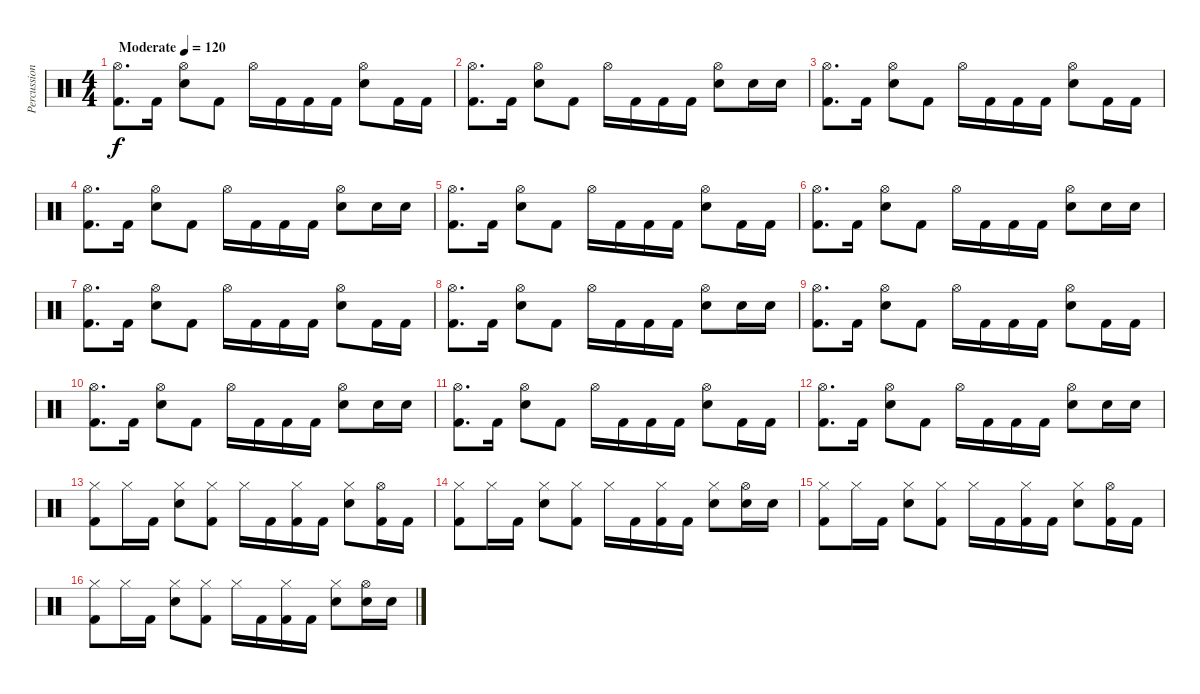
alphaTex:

\track ("Percussion" "Percussion") {instrument percussion}
\staff {score}
\articulation defaults
\ts (4 4)
\tempo (120 "Moderate")
\clef neutral
\ks c
("Hi-Hat (open)" "Kick (hit) 2").8{d dy f} "Kick (hit) 2".16 ("Hi-Hat (open)" "Snare (hit) 2").8 "Kick (hit) 2".8 "Hi-Hat (open)".16 "Kick (hit) 2".16 "Kick (hit) 2".16 "Kick (hit) 2".16 ("Hi-Hat (open)" "Snare (hit) 2").8 "Kick (hit) 2".16 "Kick (hit) 2".16 |
("Hi-Hat (open)" "Kick (hit) 2").8{d} "Kick (hit) 2".16 ("Hi-Hat (open)" "Snare (hit) 2").8 "Kick (hit) 2".8 "Hi-Hat (open)".16 "Kick (hit) 2".16 "Kick (hit) 2".16 "Kick (hit) 2".16 ("Hi-Hat (open)" "Snare (hit) 2").8 "Snare (hit) 2".16 "Snare (hit) 2".16 |
("Hi-Hat (open)" "Kick (hit) 2").8{d} "Kick (hit) 2".16 ("Hi-Hat (open)" "Snare (hit) 2").8 "Kick (hit) 2".8 "Hi-Hat (open)".16 "Kick (hit) 2".16 "Kick (hit) 2".16 "Kick (hit) 2".16 ("Hi-Hat (open)" "Snare (hit) 2").8 "Kick (hit) 2".16 "Kick (hit) 2".16 |
("Hi-Hat (open)" "Kick (hit) 2").8{d} "Kick (hit) 2".16 ("Hi-Hat (open)" "Snare (hit) 2").8 "Kick (hit) 2".8 "Hi-Hat (open)".16 "Kick (hit) 2".16 "Kick (hit) 2".16 "Kick (hit) 2".16 ("Hi-Hat (open)" "Snare (hit) 2").8 "Snare (hit) 2".16 "Snare (hit) 2".16 |
("Hi-Hat (open)" "Kick (hit) 2").8{d} "Kick (hit) 2".16 ("Hi-Hat (open)" "Snare (hit) 2").8 "Kick (hit) 2".8 "Hi-Hat (open)".16 "Kick (hit) 2".16 "Kick (hit) 2".16 "Kick (hit) 2".16 ("Hi-Hat (open)" "Snare (hit) 2").8 "Kick (hit) 2".16 "Kick (hit) 2".16 |
("Hi-Hat (open)" "Kick (hit) 2").8{d} "Kick (hit) 2".16 ("Hi-Hat (open)" "Snare (hit) 2").8 "Kick (hit) 2".8 "Hi-Hat (open)".16 "Kick (hit) 2".16 "Kick (hit) 2".16 "Kick (hit) 2".16 ("Hi-Hat (open)" "Snare (hit) 2").8 "Snare (hit) 2".16 "Snare (hit) 2".16 |
("Hi-Hat (open)" "Kick (hit) 2").8{d} "Kick (hit) 2".16 ("Hi-Hat (open)" "Snare (hit) 2").8 "Kick (hit) 2".8 "Hi-Hat (open)".16 "Kick (hit) 2".16 "Kick (hit) 2".16 "Kick (hit) 2".16 ("Hi-Hat (open)" "Snare (hit) 2").8 "Kick (hit) 2".16 "Kick (hit) 2".16 |
("Hi-Hat (open)" "Kick (hit) 2").8{d} "Kick (hit) 2".16 ("Hi-Hat (open)" "Snare (hit) 2").8 "Kick (hit) 2".8 "Hi-Hat (open)".16 "Kick (hit) 2".16 "Kick (hit) 2".16 "Kick (hit) 2".16 ("Hi-Hat (open)" "Snare (hit) 2").8 "Snare (hit) 2".16 "Snare (hit) 2".16 |
("Hi-Hat (open)" "Kick (hit) 2").8{d} "Kick (hit) 2".16 ("Hi-Hat (open)" "Snare (hit) 2").8 "Kick (hit) 2".8 "Hi-Hat (open)".16 "Kick (hit) 2".16 "Kick (hit) 2".16 "Kick (hit) 2".16 ("Hi-Hat (open)" "Snare (hit) 2").8 "Kick (hit) 2".16 "Kick (hit) 2".16 |
("Hi-Hat (open)" "Kick (hit) 2").8{d} "Kick (hit) 2".16 ("Hi-Hat (open)" "Snare (hit) 2").8 "Kick (hit) 2".8 "Hi-Hat (open)".16 "Kick (hit) 2".16 "Kick (hit) 2".16 "Kick (hit) 2".16 ("Hi-Hat (open)" "Snare (hit) 2").8 "Snare (hit) 2".16 "Snare (hit) 2".16 |
("Hi-Hat (open)" "Kick (hit) 2").8{d} "Kick (hit) 2".16 ("Hi-Hat (open)" "Snare (hit) 2").8 "Kick (hit) 2".8 "Hi-Hat (open)".16 "Kick (hit) 2".16 "Kick (hit) 2".16 "Kick (hit) 2".16 ("Hi-Hat (open)" "Snare (hit) 2").8 "Kick (hit) 2".16 "Kick (hit) 2".16 |
("Hi-Hat (open)" "Kick (hit) 2").8{d} "Kick (hit) 2".16 ("Hi-Hat (open)" "Snare (hit) 2").8 "Kick (hit) 2".8 "Hi-Hat (open)".16 "Kick (hit) 2".16 "Kick (hit) 2".16 "Kick (hit) 2".16 ("Hi-Hat (open)" "Snare (hit) 2").8 "Snare (hit) 2".16 "Snare (hit) 2".16 |
("Hi-Hat (closed)" "Kick (hit) 2").8 "Hi-Hat (closed)".16 "Kick (hit) 2".16 ("Hi-Hat (closed)" "Snare (hit) 2").8 ("Hi-Hat (closed)" "Kick (hit) 2").8 "Hi-Hat (closed)".16 "Kick (hit) 2".16 ("Hi-Hat (closed)" "Kick (hit) 2").16 "Kick (hit) 2".16 ("Hi-Hat (closed)" "Snare (hit) 2").8 ("Hi-Hat (open)" "Kick (hit) 2").16 "Kick (hit) 2".16 |
("Hi-Hat (closed)" "Kick (hit) 2").8 "Hi-Hat (closed)".16 "Kick (hit) 2".16 ("Hi-Hat (closed)" "Snare (hit) 2").8 ("Hi-Hat (closed)" "Kick (hit) 2").8 "Hi-Hat (closed)".16 "Kick (hit) 2".16 ("Hi-Hat (closed)" "Kick (hit) 2").16 "Kick (hit) 2".16 ("Hi-Hat (closed)" "Snare (hit) 2").8 ("Hi-Hat (open)" "Snare (hit) 2").16 "Snare (hit) 2".16 |
("Hi-Hat (closed)" "Kick (hit) 2").8 "Hi-Hat (closed)".16 "Kick (hit) 2".16 ("Hi-Hat (closed)" "Snare (hit) 2").8 ("Hi-Hat (closed)" "Kick (hit) 2").8 "Hi-Hat (closed)".16 "Kick (hit) 2".16 ("Hi-Hat (closed)" "Kick (hit) 2").16 "Kick (hit) 2".16 ("Hi-Hat (closed)" "Snare (hit) 2").8 ("Hi-Hat (open)" "Kick (hit) 2").16 "Kick (hit) 2".16 |
("Hi-Hat (closed)" "Kick (hit) 2").8 "Hi-Hat (closed)".16 "Kick (hit) 2".16 ("Hi-Hat (closed)" "Snare (hit) 2").8 ("Hi-Hat (closed)" "Kick (hit) 2").8 "Hi-Hat (closed)".16 "Kick (hit) 2".16 ("Hi-Hat (closed)" "Kick (hit) 2").16 "Kick (hit) 2".16 ("Hi-Hat (closed)" "Snare (hit) 2").8 ("Hi-Hat (open)" "Snare (hit) 2").16 "Snare (hit) 2".16
